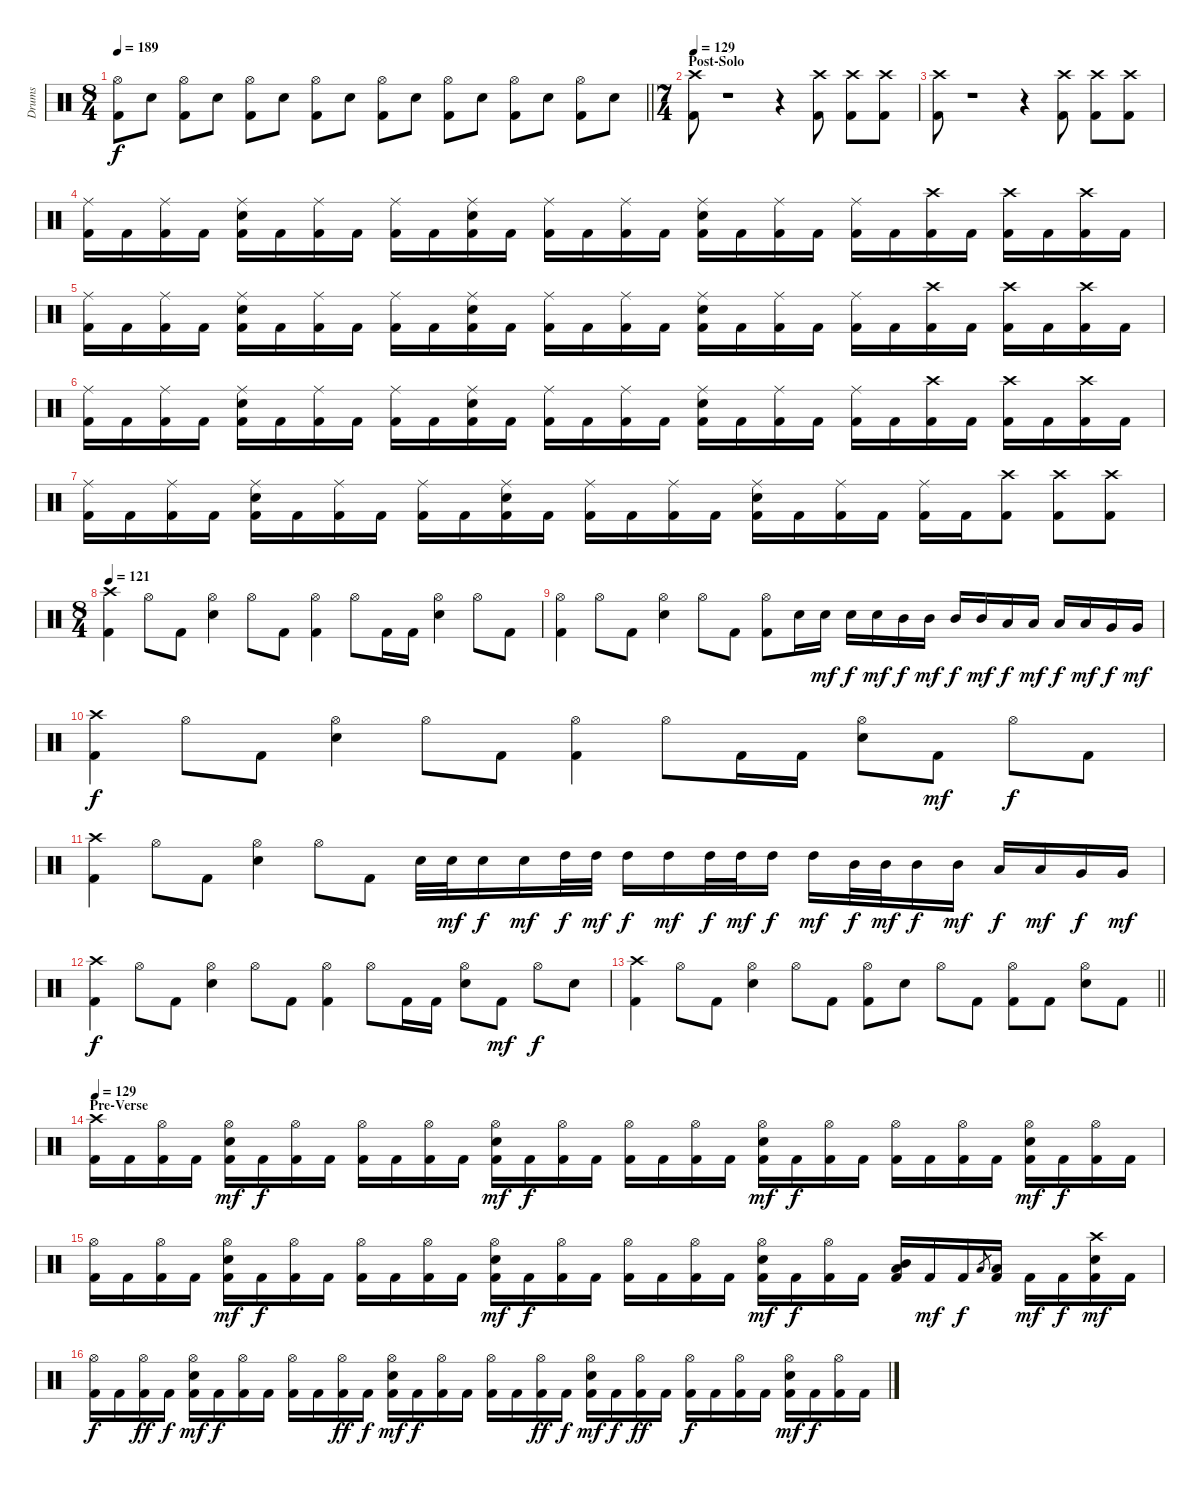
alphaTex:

\track ("Drums" "Drums") {instrument percussion}
\staff {score}
\articulation defaults
\ts (8 4)
\tempo 189
\clef neutral
\barLineRight lightlight
\ks c
("Hi-Hat (open)" "Kick (hit) 2").8{dy f} "Snare (hit) 2".8 ("Hi-Hat (open)" "Kick (hit) 2").8 "Snare (hit) 2".8 ("Hi-Hat (open)" "Kick (hit) 2").8 "Snare (hit) 2".8 ("Hi-Hat (open)" "Kick (hit) 2").8 "Snare (hit) 2".8 ("Hi-Hat (open)" "Kick (hit) 2").8 "Snare (hit) 2".8 ("Hi-Hat (open)" "Kick (hit) 2").8 "Snare (hit) 2".8 ("Hi-Hat (open)" "Kick (hit) 2").8 "Snare (hit) 2".8 ("Hi-Hat (open)" "Kick (hit) 2").8 "Snare (hit) 2".8 |
\ts (7 4)
\section ("" "Post-Solo")
\tempo 129
("Crash high (hit)" "Kick (hit) 2").8 r.1 r.4 ("Crash high (hit)" "Kick (hit) 2").8 ("Crash high (hit)" "Kick (hit) 2").8 ("Crash high (hit)" "Kick (hit) 2").8 |
("Crash high (hit)" "Kick (hit) 2").8 r.1 r.4 ("Crash high (hit)" "Kick (hit) 2").8 ("Crash high (hit)" "Kick (hit) 2").8 ("Crash high (hit)" "Kick (hit) 2").8 |
("Ride (middle)" "Kick (hit) 2").16 "Kick (hit) 2".16 ("Ride (middle)" "Kick (hit) 2").16 "Kick (hit) 2".16 ("Ride (middle)" "Snare (hit) 2" "Kick (hit) 2").16 "Kick (hit) 2".16 ("Ride (middle)" "Kick (hit) 2").16 "Kick (hit) 2".16 ("Ride (middle)" "Kick (hit) 2").16 "Kick (hit) 2".16 ("Ride (middle)" "Snare (hit) 2" "Kick (hit) 2").16 "Kick (hit) 2".16 ("Ride (middle)" "Kick (hit) 2").16 "Kick (hit) 2".16 ("Ride (middle)" "Kick (hit) 2").16 "Kick (hit) 2".16 ("Ride (middle)" "Snare (hit) 2" "Kick (hit) 2").16 "Kick (hit) 2".16 ("Ride (middle)" "Kick (hit) 2").16 "Kick (hit) 2".16 ("Ride (middle)" "Kick (hit) 2").16 "Kick (hit) 2".16 ("Crash high (hit)" "Kick (hit) 2").16 "Kick (hit) 2".16 ("Crash high (hit)" "Kick (hit) 2").16 "Kick (hit) 2".16 ("Crash high (hit)" "Kick (hit) 2").16 "Kick (hit) 2".16 |
("Ride (middle)" "Kick (hit) 2").16 "Kick (hit) 2".16 ("Ride (middle)" "Kick (hit) 2").16 "Kick (hit) 2".16 ("Ride (middle)" "Snare (hit) 2" "Kick (hit) 2").16 "Kick (hit) 2".16 ("Ride (middle)" "Kick (hit) 2").16 "Kick (hit) 2".16 ("Ride (middle)" "Kick (hit) 2").16 "Kick (hit) 2".16 ("Ride (middle)" "Snare (hit) 2" "Kick (hit) 2").16 "Kick (hit) 2".16 ("Ride (middle)" "Kick (hit) 2").16 "Kick (hit) 2".16 ("Ride (middle)" "Kick (hit) 2").16 "Kick (hit) 2".16 ("Ride (middle)" "Snare (hit) 2" "Kick (hit) 2").16 "Kick (hit) 2".16 ("Ride (middle)" "Kick (hit) 2").16 "Kick (hit) 2".16 ("Ride (middle)" "Kick (hit) 2").16 "Kick (hit) 2".16 ("Crash high (hit)" "Kick (hit) 2").16 "Kick (hit) 2".16 ("Crash high (hit)" "Kick (hit) 2").16 "Kick (hit) 2".16 ("Crash high (hit)" "Kick (hit) 2").16 "Kick (hit) 2".16 |
("Ride (middle)" "Kick (hit) 2").16 "Kick (hit) 2".16 ("Ride (middle)" "Kick (hit) 2").16 "Kick (hit) 2".16 ("Ride (middle)" "Snare (hit) 2" "Kick (hit) 2").16 "Kick (hit) 2".16 ("Ride (middle)" "Kick (hit) 2").16 "Kick (hit) 2".16 ("Ride (middle)" "Kick (hit) 2").16 "Kick (hit) 2".16 ("Ride (middle)" "Snare (hit) 2" "Kick (hit) 2").16 "Kick (hit) 2".16 ("Ride (middle)" "Kick (hit) 2").16 "Kick (hit) 2".16 ("Ride (middle)" "Kick (hit) 2").16 "Kick (hit) 2".16 ("Ride (middle)" "Snare (hit) 2" "Kick (hit) 2").16 "Kick (hit) 2".16 ("Ride (middle)" "Kick (hit) 2").16 "Kick (hit) 2".16 ("Ride (middle)" "Kick (hit) 2").16 "Kick (hit) 2".16 ("Crash high (hit)" "Kick (hit) 2").16 "Kick (hit) 2".16 ("Crash high (hit)" "Kick (hit) 2").16 "Kick (hit) 2".16 ("Crash high (hit)" "Kick (hit) 2").16 "Kick (hit) 2".16 |
("Ride (middle)" "Kick (hit) 2").16 "Kick (hit) 2".16 ("Ride (middle)" "Kick (hit) 2").16 "Kick (hit) 2".16 ("Ride (middle)" "Snare (hit) 2" "Kick (hit) 2").16 "Kick (hit) 2".16 ("Ride (middle)" "Kick (hit) 2").16 "Kick (hit) 2".16 ("Ride (middle)" "Kick (hit) 2").16 "Kick (hit) 2".16 ("Ride (middle)" "Snare (hit) 2" "Kick (hit) 2").16 "Kick (hit) 2".16 ("Ride (middle)" "Kick (hit) 2").16 "Kick (hit) 2".16 ("Ride (middle)" "Kick (hit) 2").16 "Kick (hit) 2".16 ("Ride (middle)" "Snare (hit) 2" "Kick (hit) 2").16 "Kick (hit) 2".16 ("Ride (middle)" "Kick (hit) 2").16 "Kick (hit) 2".16 ("Ride (middle)" "Kick (hit) 2").16 "Kick (hit) 2".16 ("Crash high (hit)" "Kick (hit) 2").8 ("Crash high (hit)" "Kick (hit) 2").8 ("Crash high (hit)" "Kick (hit) 2").8 |
\ts (8 4)
\tempo 121
("Crash high (hit)" "Kick (hit) 2").4 "Hi-Hat (open)".8 "Kick (hit) 2".8 ("Hi-Hat (open)" "Snare (hit) 2").4 "Hi-Hat (open)".8 "Kick (hit) 2".8 ("Hi-Hat (open)" "Kick (hit) 2").4 "Hi-Hat (open)".8 "Kick (hit) 2".16 "Kick (hit) 2".16 ("Hi-Hat (open)" "Snare (hit) 2").4 "Hi-Hat (open)".8 "Kick (hit) 2".8 |
("Hi-Hat (open)" "Kick (hit) 2").4 "Hi-Hat (open)".8 "Kick (hit) 2".8 ("Hi-Hat (open)" "Snare (hit) 2").4 "Hi-Hat (open)".8 "Kick (hit) 2".8 ("Hi-Hat (open)" "Kick (hit) 2").8 "Snare (hit) 2".16 "Snare (hit) 2".16{dy mf} "Snare (hit) 2".16{dy f} "Snare (hit) 2".16{dy mf} "Mid Tom (hit)".16{dy f} "Mid Tom (hit)".16{dy mf} "Mid Tom (hit)".16{dy f} "Mid Tom (hit)".16{dy mf} "Low Tom (hit)".16{dy f} "Low Tom (hit)".16{dy mf} "Low Tom (hit)".16{dy f} "Low Tom (hit)".16{dy mf} "Very Low Tom (hit)".16{dy f} "Very Low Tom (hit)".16{dy mf} |
("Crash high (hit)" "Kick (hit) 2").4{dy f} "Hi-Hat (open)".8 "Kick (hit) 2".8 ("Hi-Hat (open)" "Snare (hit) 2").4 "Hi-Hat (open)".8 "Kick (hit) 2".8 ("Hi-Hat (open)" "Kick (hit) 2").4 "Hi-Hat (open)".8 "Kick (hit) 2".16 "Kick (hit) 2".16 ("Hi-Hat (open)" "Snare (hit) 2").8 "Kick (hit) 2".8{dy mf} "Hi-Hat (open)".8{dy f} "Kick (hit) 2".8 |
("Crash high (hit)" "Kick (hit) 2").4 "Hi-Hat (open)".8 "Kick (hit) 2".8 ("Hi-Hat (open)" "Snare (hit) 2").4 "Hi-Hat (open)".8 "Kick (hit) 2".8 "Snare (hit) 2".32 "Snare (hit) 2".32{dy mf} "Snare (hit) 2".16{dy f} "Snare (hit) 2".16{dy mf} "High Tom (hit)".32{dy f} "High Tom (hit)".32{dy mf} "High Tom (hit)".16{dy f} "High Tom (hit)".16{dy mf} "High Tom (hit)".32{dy f} "High Tom (hit)".32{dy mf} "High Tom (hit)".16{dy f} "High Tom (hit)".16{dy mf} "Mid Tom (hit)".32{dy f} "Mid Tom (hit)".32{dy mf} "Mid Tom (hit)".16{dy f} "Mid Tom (hit)".16{dy mf} "Low Tom (hit)".16{dy f} "Low Tom (hit)".16{dy mf} "Very Low Tom (hit)".16{dy f} "Very Low Tom (hit)".16{dy mf} |
("Crash high (hit)" "Kick (hit) 2").4{dy f} "Hi-Hat (open)".8 "Kick (hit) 2".8 ("Hi-Hat (open)" "Snare (hit) 2").4 "Hi-Hat (open)".8 "Kick (hit) 2".8 ("Hi-Hat (open)" "Kick (hit) 2").4 "Hi-Hat (open)".8 "Kick (hit) 2".16 "Kick (hit) 2".16 ("Hi-Hat (open)" "Snare (hit) 2").8 "Kick (hit) 2".8{dy mf} "Hi-Hat (open)".8{dy f} "Snare (hit) 2".8 |
\barLineRight lightlight
("Crash high (hit)" "Kick (hit) 2").4 "Hi-Hat (open)".8 "Kick (hit) 2".8 ("Hi-Hat (open)" "Snare (hit) 2").4 "Hi-Hat (open)".8 "Kick (hit) 2".8 ("Hi-Hat (open)" "Kick (hit) 2").8 "Snare (hit) 2".8 "Hi-Hat (open)".8 "Kick (hit) 2".8 ("Hi-Hat (open)" "Kick (hit) 2").8 "Kick (hit) 2".8 ("Hi-Hat (open)" "Snare (hit) 2").8 "Kick (hit) 2".8 |
\section ("" "Pre-Verse")
\tempo 129
("Crash high (hit)" "Kick (hit) 2").16 "Kick (hit) 2".16 ("Hi-Hat (open)" "Kick (hit) 2").16 "Kick (hit) 2".16 ("Hi-Hat (open)" "Snare (hit) 2" "Kick (hit) 2").16{dy mf} "Kick (hit) 2".16{dy f} ("Hi-Hat (open)" "Kick (hit) 2").16 "Kick (hit) 2".16 ("Hi-Hat (open)" "Kick (hit) 2").16 "Kick (hit) 2".16 ("Hi-Hat (open)" "Kick (hit) 2").16 "Kick (hit) 2".16 ("Hi-Hat (open)" "Snare (hit) 2" "Kick (hit) 2").16{dy mf} "Kick (hit) 2".16{dy f} ("Hi-Hat (open)" "Kick (hit) 2").16 "Kick (hit) 2".16 ("Hi-Hat (open)" "Kick (hit) 2").16 "Kick (hit) 2".16 ("Hi-Hat (open)" "Kick (hit) 2").16 "Kick (hit) 2".16 ("Hi-Hat (open)" "Snare (hit) 2" "Kick (hit) 2").16{dy mf} "Kick (hit) 2".16{dy f} ("Hi-Hat (open)" "Kick (hit) 2").16 "Kick (hit) 2".16 ("Hi-Hat (open)" "Kick (hit) 2").16 "Kick (hit) 2".16 ("Hi-Hat (open)" "Kick (hit) 2").16 "Kick (hit) 2".16 ("Hi-Hat (open)" "Snare (hit) 2" "Kick (hit) 2").16{dy mf} "Kick (hit) 2".16{dy f} ("Hi-Hat (open)" "Kick (hit) 2").16 "Kick (hit) 2".16 |
("Hi-Hat (open)" "Kick (hit) 2").16 "Kick (hit) 2".16 ("Hi-Hat (open)" "Kick (hit) 2").16 "Kick (hit) 2".16 ("Hi-Hat (open)" "Snare (hit) 2" "Kick (hit) 2").16{dy mf} "Kick (hit) 2".16{dy f} ("Hi-Hat (open)" "Kick (hit) 2").16 "Kick (hit) 2".16 ("Hi-Hat (open)" "Kick (hit) 2").16 "Kick (hit) 2".16 ("Hi-Hat (open)" "Kick (hit) 2").16 "Kick (hit) 2".16 ("Hi-Hat (open)" "Snare (hit) 2" "Kick (hit) 2").16{dy mf} "Kick (hit) 2".16{dy f} ("Hi-Hat (open)" "Kick (hit) 2").16 "Kick (hit) 2".16 ("Hi-Hat (open)" "Kick (hit) 2").16 "Kick (hit) 2".16 ("Hi-Hat (open)" "Kick (hit) 2").16 "Kick (hit) 2".16 ("Hi-Hat (open)" "Snare (hit) 2" "Kick (hit) 2").16{dy mf} "Kick (hit) 2".16{dy f} ("Hi-Hat (open)" "Kick (hit) 2").16 "Kick (hit) 2".16 ("Low Tom (hit)" "Mid Tom (hit)" "Kick (hit) 2").16 "Kick (hit) 2".16{dy mf} "Kick (hit) 2".16{dy f} "Low Tom (hit)".8{gr} ("Low Tom (hit)" "Kick (hit) 2").16 "Kick (hit) 2".16{dy mf} "Kick (hit) 2".16{dy f} ("Crash high (hit)" "Snare (hit) 2" "Kick (hit) 2").16{dy mf} "Kick (hit) 2".16 |
("Hi-Hat (open)" "Kick (hit) 2").16{dy f} "Kick (hit) 2".16 ("Hi-Hat (open)" "Kick (hit) 2").16{dy ff} "Kick (hit) 2".16{dy f} ("Hi-Hat (open)" "Snare (hit) 2" "Kick (hit) 2").16{dy mf} "Kick (hit) 2".16{dy f} ("Hi-Hat (open)" "Kick (hit) 2").16 "Kick (hit) 2".16 ("Hi-Hat (open)" "Kick (hit) 2").16 "Kick (hit) 2".16 ("Hi-Hat (open)" "Kick (hit) 2").16{dy ff} "Kick (hit) 2".16{dy f} ("Hi-Hat (open)" "Snare (hit) 2" "Kick (hit) 2").16{dy mf} "Kick (hit) 2".16{dy f} ("Hi-Hat (open)" "Kick (hit) 2").16 "Kick (hit) 2".16 ("Hi-Hat (open)" "Kick (hit) 2").16 "Kick (hit) 2".16 ("Hi-Hat (open)" "Kick (hit) 2").16{dy ff} "Kick (hit) 2".16{dy f} ("Hi-Hat (open)" "Snare (hit) 2" "Kick (hit) 2").16{dy mf} "Kick (hit) 2".16{dy f} ("Hi-Hat (open)" "Kick (hit) 2").16{dy ff} "Kick (hit) 2".16 ("Hi-Hat (open)" "Kick (hit) 2").16{dy f} "Kick (hit) 2".16 ("Hi-Hat (open)" "Kick (hit) 2").16 "Kick (hit) 2".16 ("Hi-Hat (open)" "Snare (hit) 2" "Kick (hit) 2").16{dy mf} "Kick (hit) 2".16{dy f} ("Hi-Hat (open)" "Kick (hit) 2").16 "Kick (hit) 2".16
